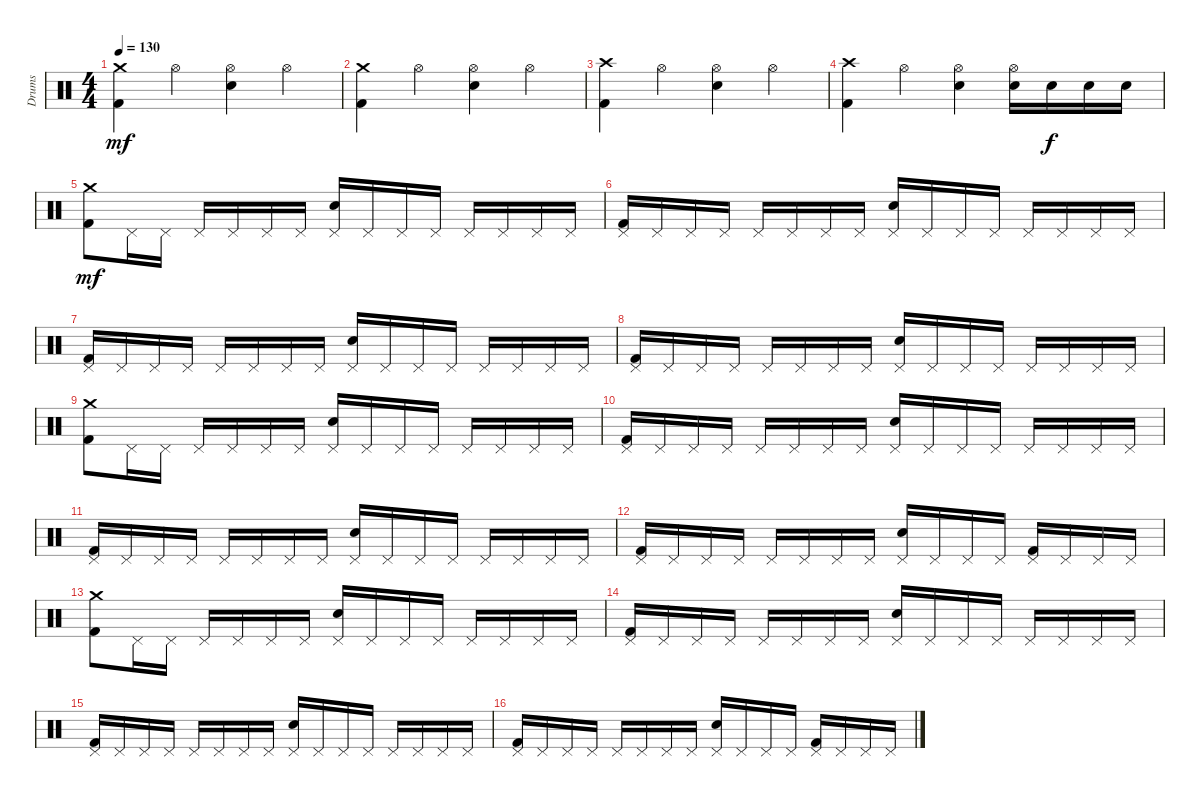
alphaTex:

\track ("Drums" "Drums") {instrument percussion}
\staff {score}
\articulation defaults
\ts (4 4)
\tempo 130
\clef neutral
\ks c
("Kick (hit) 2" "Crash medium (hit)").4{dy mf} "Hi-Hat (open)".4 ("Electric Snare (hit)" "Hi-Hat (open)").4 "Hi-Hat (open)".4 |
("Kick (hit) 2" "Crash medium (hit)").4 "Hi-Hat (open)".4 ("Electric Snare (hit)" "Hi-Hat (open)").4 "Hi-Hat (open)".4 |
("Kick (hit) 2" "Crash high (hit)").4 "Hi-Hat (open)".4 ("Electric Snare (hit)" "Hi-Hat (open)").4 "Hi-Hat (open)".4 |
("Kick (hit) 2" "Crash high (hit)").4 "Hi-Hat (open)".4 ("Electric Snare (hit)" "Hi-Hat (open)").4 ("Electric Snare (hit)" "Hi-Hat (open)").16 "Electric Snare (hit)".16{dy f} "Electric Snare (hit)".16 "Electric Snare (hit)".16 |
("Kick (hit) 2" "Crash medium (hit)").8{dy mf} "Pedal Hi-Hat (hit)".16 "Pedal Hi-Hat (hit)".16 "Pedal Hi-Hat (hit)".16 "Pedal Hi-Hat (hit)".16 "Pedal Hi-Hat (hit)".16 "Pedal Hi-Hat (hit)".16 ("Electric Snare (hit)" "Pedal Hi-Hat (hit)").16 "Pedal Hi-Hat (hit)".16 "Pedal Hi-Hat (hit)".16 "Pedal Hi-Hat (hit)".16 "Pedal Hi-Hat (hit)".16 "Pedal Hi-Hat (hit)".16 "Pedal Hi-Hat (hit)".16 "Pedal Hi-Hat (hit)".16 |
("Kick (hit) 2" "Pedal Hi-Hat (hit)").16 "Pedal Hi-Hat (hit)".16 "Pedal Hi-Hat (hit)".16 "Pedal Hi-Hat (hit)".16 "Pedal Hi-Hat (hit)".16 "Pedal Hi-Hat (hit)".16 "Pedal Hi-Hat (hit)".16 "Pedal Hi-Hat (hit)".16 ("Electric Snare (hit)" "Pedal Hi-Hat (hit)").16 "Pedal Hi-Hat (hit)".16 "Pedal Hi-Hat (hit)".16 "Pedal Hi-Hat (hit)".16 "Pedal Hi-Hat (hit)".16 "Pedal Hi-Hat (hit)".16 "Pedal Hi-Hat (hit)".16 "Pedal Hi-Hat (hit)".16 |
("Kick (hit) 2" "Pedal Hi-Hat (hit)").16 "Pedal Hi-Hat (hit)".16 "Pedal Hi-Hat (hit)".16 "Pedal Hi-Hat (hit)".16 "Pedal Hi-Hat (hit)".16 "Pedal Hi-Hat (hit)".16 "Pedal Hi-Hat (hit)".16 "Pedal Hi-Hat (hit)".16 ("Electric Snare (hit)" "Pedal Hi-Hat (hit)").16 "Pedal Hi-Hat (hit)".16 "Pedal Hi-Hat (hit)".16 "Pedal Hi-Hat (hit)".16 "Pedal Hi-Hat (hit)".16 "Pedal Hi-Hat (hit)".16 "Pedal Hi-Hat (hit)".16 "Pedal Hi-Hat (hit)".16 |
("Kick (hit) 2" "Pedal Hi-Hat (hit)").16 "Pedal Hi-Hat (hit)".16 "Pedal Hi-Hat (hit)".16 "Pedal Hi-Hat (hit)".16 "Pedal Hi-Hat (hit)".16 "Pedal Hi-Hat (hit)".16 "Pedal Hi-Hat (hit)".16 "Pedal Hi-Hat (hit)".16 ("Electric Snare (hit)" "Pedal Hi-Hat (hit)").16 "Pedal Hi-Hat (hit)".16 "Pedal Hi-Hat (hit)".16 "Pedal Hi-Hat (hit)".16 "Pedal Hi-Hat (hit)".16 "Pedal Hi-Hat (hit)".16 "Pedal Hi-Hat (hit)".16 "Pedal Hi-Hat (hit)".16 |
("Kick (hit) 2" "Crash medium (hit)").8 "Pedal Hi-Hat (hit)".16 "Pedal Hi-Hat (hit)".16 "Pedal Hi-Hat (hit)".16 "Pedal Hi-Hat (hit)".16 "Pedal Hi-Hat (hit)".16 "Pedal Hi-Hat (hit)".16 ("Electric Snare (hit)" "Pedal Hi-Hat (hit)").16 "Pedal Hi-Hat (hit)".16 "Pedal Hi-Hat (hit)".16 "Pedal Hi-Hat (hit)".16 "Pedal Hi-Hat (hit)".16 "Pedal Hi-Hat (hit)".16 "Pedal Hi-Hat (hit)".16 "Pedal Hi-Hat (hit)".16 |
("Kick (hit) 2" "Pedal Hi-Hat (hit)").16 "Pedal Hi-Hat (hit)".16 "Pedal Hi-Hat (hit)".16 "Pedal Hi-Hat (hit)".16 "Pedal Hi-Hat (hit)".16 "Pedal Hi-Hat (hit)".16 "Pedal Hi-Hat (hit)".16 "Pedal Hi-Hat (hit)".16 ("Electric Snare (hit)" "Pedal Hi-Hat (hit)").16 "Pedal Hi-Hat (hit)".16 "Pedal Hi-Hat (hit)".16 "Pedal Hi-Hat (hit)".16 "Pedal Hi-Hat (hit)".16 "Pedal Hi-Hat (hit)".16 "Pedal Hi-Hat (hit)".16 "Pedal Hi-Hat (hit)".16 |
("Kick (hit) 2" "Pedal Hi-Hat (hit)").16 "Pedal Hi-Hat (hit)".16 "Pedal Hi-Hat (hit)".16 "Pedal Hi-Hat (hit)".16 "Pedal Hi-Hat (hit)".16 "Pedal Hi-Hat (hit)".16 "Pedal Hi-Hat (hit)".16 "Pedal Hi-Hat (hit)".16 ("Electric Snare (hit)" "Pedal Hi-Hat (hit)").16 "Pedal Hi-Hat (hit)".16 "Pedal Hi-Hat (hit)".16 "Pedal Hi-Hat (hit)".16 "Pedal Hi-Hat (hit)".16 "Pedal Hi-Hat (hit)".16 "Pedal Hi-Hat (hit)".16 "Pedal Hi-Hat (hit)".16 |
("Kick (hit) 2" "Pedal Hi-Hat (hit)").16 "Pedal Hi-Hat (hit)".16 "Pedal Hi-Hat (hit)".16 "Pedal Hi-Hat (hit)".16 "Pedal Hi-Hat (hit)".16 "Pedal Hi-Hat (hit)".16 "Pedal Hi-Hat (hit)".16 "Pedal Hi-Hat (hit)".16 ("Electric Snare (hit)" "Pedal Hi-Hat (hit)").16 "Pedal Hi-Hat (hit)".16 "Pedal Hi-Hat (hit)".16 "Pedal Hi-Hat (hit)".16 ("Kick (hit) 2" "Pedal Hi-Hat (hit)").16 "Pedal Hi-Hat (hit)".16 "Pedal Hi-Hat (hit)".16 "Pedal Hi-Hat (hit)".16 |
("Kick (hit) 2" "Crash medium (hit)").8 "Pedal Hi-Hat (hit)".16 "Pedal Hi-Hat (hit)".16 "Pedal Hi-Hat (hit)".16 "Pedal Hi-Hat (hit)".16 "Pedal Hi-Hat (hit)".16 "Pedal Hi-Hat (hit)".16 ("Electric Snare (hit)" "Pedal Hi-Hat (hit)").16 "Pedal Hi-Hat (hit)".16 "Pedal Hi-Hat (hit)".16 "Pedal Hi-Hat (hit)".16 "Pedal Hi-Hat (hit)".16 "Pedal Hi-Hat (hit)".16 "Pedal Hi-Hat (hit)".16 "Pedal Hi-Hat (hit)".16 |
("Kick (hit) 2" "Pedal Hi-Hat (hit)").16 "Pedal Hi-Hat (hit)".16 "Pedal Hi-Hat (hit)".16 "Pedal Hi-Hat (hit)".16 "Pedal Hi-Hat (hit)".16 "Pedal Hi-Hat (hit)".16 "Pedal Hi-Hat (hit)".16 "Pedal Hi-Hat (hit)".16 ("Electric Snare (hit)" "Pedal Hi-Hat (hit)").16 "Pedal Hi-Hat (hit)".16 "Pedal Hi-Hat (hit)".16 "Pedal Hi-Hat (hit)".16 "Pedal Hi-Hat (hit)".16 "Pedal Hi-Hat (hit)".16 "Pedal Hi-Hat (hit)".16 "Pedal Hi-Hat (hit)".16 |
("Kick (hit) 2" "Pedal Hi-Hat (hit)").16 "Pedal Hi-Hat (hit)".16 "Pedal Hi-Hat (hit)".16 "Pedal Hi-Hat (hit)".16 "Pedal Hi-Hat (hit)".16 "Pedal Hi-Hat (hit)".16 "Pedal Hi-Hat (hit)".16 "Pedal Hi-Hat (hit)".16 ("Electric Snare (hit)" "Pedal Hi-Hat (hit)").16 "Pedal Hi-Hat (hit)".16 "Pedal Hi-Hat (hit)".16 "Pedal Hi-Hat (hit)".16 "Pedal Hi-Hat (hit)".16 "Pedal Hi-Hat (hit)".16 "Pedal Hi-Hat (hit)".16 "Pedal Hi-Hat (hit)".16 |
("Kick (hit) 2" "Pedal Hi-Hat (hit)").16 "Pedal Hi-Hat (hit)".16 "Pedal Hi-Hat (hit)".16 "Pedal Hi-Hat (hit)".16 "Pedal Hi-Hat (hit)".16 "Pedal Hi-Hat (hit)".16 "Pedal Hi-Hat (hit)".16 "Pedal Hi-Hat (hit)".16 ("Electric Snare (hit)" "Pedal Hi-Hat (hit)").16 "Pedal Hi-Hat (hit)".16 "Pedal Hi-Hat (hit)".16 "Pedal Hi-Hat (hit)".16 ("Kick (hit) 2" "Pedal Hi-Hat (hit)").16 "Pedal Hi-Hat (hit)".16 "Pedal Hi-Hat (hit)".16 "Pedal Hi-Hat (hit)".16
